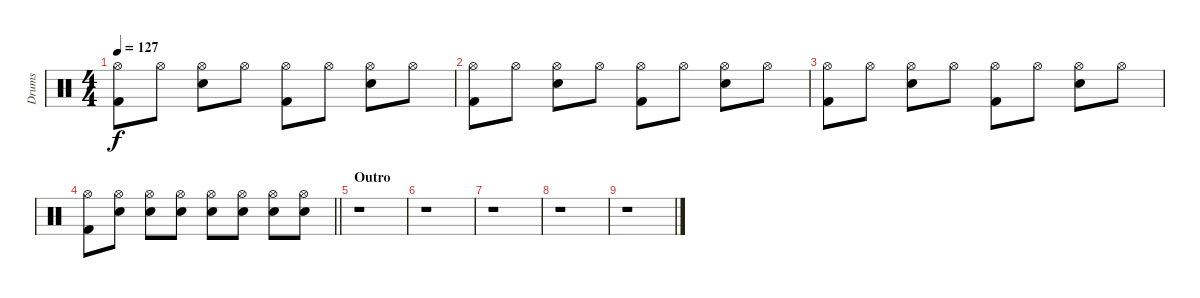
\track ("Drums" "Drums") {instrument percussion}
\staff {score}
\articulation defaults
\ts (4 4)
\tempo 127
\clef neutral
\ks c
("Hi-Hat (open)" "Kick (hit) 2").8{dy f} "Hi-Hat (open)".8 ("Hi-Hat (open)" "Electric Snare (hit)").8 "Hi-Hat (open)".8 ("Hi-Hat (open)" "Kick (hit) 2").8 "Hi-Hat (open)".8 ("Hi-Hat (open)" "Electric Snare (hit)").8 "Hi-Hat (open)".8 |
("Hi-Hat (open)" "Kick (hit) 2").8 "Hi-Hat (open)".8 ("Hi-Hat (open)" "Electric Snare (hit)").8 "Hi-Hat (open)".8 ("Hi-Hat (open)" "Kick (hit) 2").8 "Hi-Hat (open)".8 ("Hi-Hat (open)" "Electric Snare (hit)").8 "Hi-Hat (open)".8 |
("Hi-Hat (open)" "Kick (hit) 2").8 "Hi-Hat (open)".8 ("Hi-Hat (open)" "Electric Snare (hit)").8 "Hi-Hat (open)".8 ("Hi-Hat (open)" "Kick (hit) 2").8 "Hi-Hat (open)".8 ("Hi-Hat (open)" "Electric Snare (hit)").8 "Hi-Hat (open)".8 |
\barLineRight lightlight
("Hi-Hat (open)" "Kick (hit) 2").8 ("Hi-Hat (open)" "Electric Snare (hit)").8 ("Hi-Hat (open)" "Electric Snare (hit)").8 ("Hi-Hat (open)" "Electric Snare (hit)").8 ("Hi-Hat (open)" "Electric Snare (hit)").8 ("Hi-Hat (open)" "Electric Snare (hit)").8 ("Hi-Hat (open)" "Electric Snare (hit)").8 ("Hi-Hat (open)" "Electric Snare (hit)").8 |
\section ("" "Outro")
r.1 |
r.1 |
r.1 |
r.1 |
r.1
